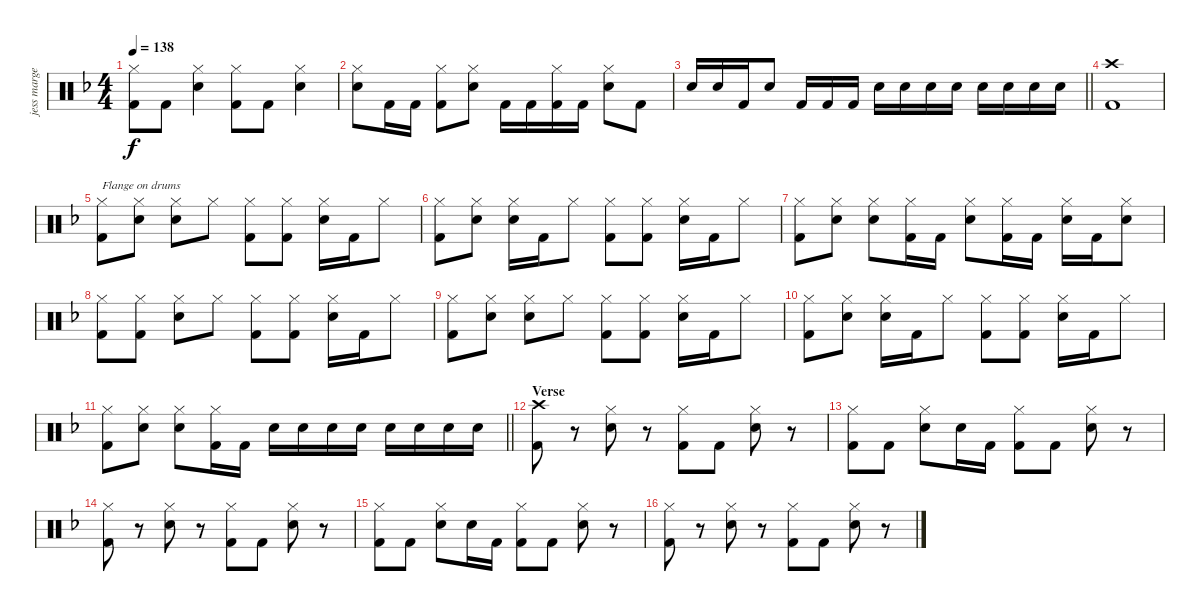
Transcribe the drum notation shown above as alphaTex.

\track ("jess margera" "jess marge") {instrument percussion}
\staff {score}
\articulation defaults
\ts (4 4)
\tempo 138
\clef neutral
\ks f
("Hi-Hat (closed)" "Kick (hit) 2").8{dy f} "Kick (hit) 2".8 ("Hi-Hat (closed)" "Electric Snare (hit)").4 ("Hi-Hat (closed)" "Kick (hit) 2").8 "Kick (hit) 2".8 ("Hi-Hat (closed)" "Electric Snare (hit)").4 |
("Hi-Hat (closed)" "Electric Snare (hit)").8 "Kick (hit) 2".16 "Kick (hit) 2".16 ("Hi-Hat (closed)" "Kick (hit) 2").8 ("Hi-Hat (closed)" "Electric Snare (hit)").8 "Kick (hit) 2".16 "Kick (hit) 2".16 ("Hi-Hat (closed)" "Kick (hit) 2").16 "Kick (hit) 2".16 ("Hi-Hat (closed)" "Electric Snare (hit)").8 "Kick (hit) 2".8 |
\barLineRight lightlight "Electric Snare (hit)".16 "Electric Snare (hit)".16 "Kick (hit) 2".16 "Electric Snare (hit)".8 "Kick (hit) 2".16 "Kick (hit) 2".16 "Kick (hit) 2".16 "Electric Snare (hit)".16 "Electric Snare (hit)".16 "Electric Snare (hit)".16 "Electric Snare (hit)".16 "Electric Snare (hit)".16 "Electric Snare (hit)".16 "Electric Snare (hit)".16 "Electric Snare (hit)".16
|
("Crash high (hit)" "Kick (hit) 2").1 |
("Hi-Hat (closed)" "Kick (hit) 2").8{txt "Flange on drums"} ("Hi-Hat (closed)" "Electric Snare (hit)").8 ("Hi-Hat (closed)" "Electric Snare (hit)").8 "Hi-Hat (closed)".8 ("Hi-Hat (closed)" "Kick (hit) 2").8 ("Hi-Hat (closed)" "Kick (hit) 2").8 ("Hi-Hat (closed)" "Electric Snare (hit)").16 "Kick (hit) 2".16 "Hi-Hat (closed)".8 |
("Hi-Hat (closed)" "Kick (hit) 2").8 ("Hi-Hat (closed)" "Electric Snare (hit)").8 ("Hi-Hat (closed)" "Electric Snare (hit)").16 "Kick (hit) 2".16 "Hi-Hat (closed)".8 ("Hi-Hat (closed)" "Kick (hit) 2").8 ("Hi-Hat (closed)" "Kick (hit) 2").8 ("Hi-Hat (closed)" "Electric Snare (hit)").16 "Kick (hit) 2".16 "Hi-Hat (closed)".8 |
("Hi-Hat (closed)" "Kick (hit) 2").8 ("Hi-Hat (closed)" "Electric Snare (hit)").8 ("Hi-Hat (closed)" "Electric Snare (hit)").8 ("Hi-Hat (closed)" "Kick (hit) 2").16 "Kick (hit) 2".16 ("Hi-Hat (closed)" "Electric Snare (hit)").8 ("Hi-Hat (closed)" "Kick (hit) 2").16 "Kick (hit) 2".16 ("Hi-Hat (closed)" "Electric Snare (hit)").16 "Kick (hit) 2".16 ("Hi-Hat (closed)" "Electric Snare (hit)").8 |
("Hi-Hat (closed)" "Kick (hit) 2").8 ("Hi-Hat (closed)" "Kick (hit) 2").8 ("Hi-Hat (closed)" "Electric Snare (hit)").8 "Hi-Hat (closed)".8 ("Hi-Hat (closed)" "Kick (hit) 2").8 ("Hi-Hat (closed)" "Kick (hit) 2").8 ("Hi-Hat (closed)" "Electric Snare (hit)").16 "Kick (hit) 2".16 "Hi-Hat (closed)".8 |
("Hi-Hat (closed)" "Kick (hit) 2").8 ("Hi-Hat (closed)" "Electric Snare (hit)").8 ("Hi-Hat (closed)" "Electric Snare (hit)").8 "Hi-Hat (closed)".8 ("Hi-Hat (closed)" "Kick (hit) 2").8 ("Hi-Hat (closed)" "Kick (hit) 2").8 ("Hi-Hat (closed)" "Electric Snare (hit)").16 "Kick (hit) 2".16 "Hi-Hat (closed)".8 |
("Hi-Hat (closed)" "Kick (hit) 2").8 ("Hi-Hat (closed)" "Electric Snare (hit)").8 ("Hi-Hat (closed)" "Electric Snare (hit)").16 "Kick (hit) 2".16 "Hi-Hat (closed)".8 ("Hi-Hat (closed)" "Kick (hit) 2").8 ("Hi-Hat (closed)" "Kick (hit) 2").8 ("Hi-Hat (closed)" "Electric Snare (hit)").16 "Kick (hit) 2".16 "Hi-Hat (closed)".8 |
\barLineRight lightlight
("Hi-Hat (closed)" "Kick (hit) 2").8 ("Hi-Hat (closed)" "Electric Snare (hit)").8 ("Hi-Hat (closed)" "Electric Snare (hit)").8 ("Hi-Hat (closed)" "Kick (hit) 2").16 "Kick (hit) 2".16 "Electric Snare (hit)".16 "Electric Snare (hit)".16 "Electric Snare (hit)".16 "Electric Snare (hit)".16 "Electric Snare (hit)".16 "Electric Snare (hit)".16 "Electric Snare (hit)".16 "Electric Snare (hit)".16 |
\section ("" "Verse")
("Crash high (hit)" "Kick (hit) 2").8 r.8 ("Hi-Hat (closed)" "Electric Snare (hit)").8 r.8 ("Hi-Hat (closed)" "Kick (hit) 2").8 "Kick (hit) 2".8 ("Hi-Hat (closed)" "Electric Snare (hit)").8 r.8 |
("Hi-Hat (closed)" "Kick (hit) 2").8 "Kick (hit) 2".8 ("Hi-Hat (closed)" "Electric Snare (hit)").8 "Electric Snare (hit)".16 "Kick (hit) 2".16 ("Hi-Hat (closed)" "Kick (hit) 2").8 "Kick (hit) 2".8 ("Hi-Hat (closed)" "Electric Snare (hit)").8 r.8 |
("Hi-Hat (closed)" "Kick (hit) 2").8 r.8 ("Hi-Hat (closed)" "Electric Snare (hit)").8 r.8 ("Hi-Hat (closed)" "Kick (hit) 2").8 "Kick (hit) 2".8 ("Hi-Hat (closed)" "Electric Snare (hit)").8 r.8 |
("Hi-Hat (closed)" "Kick (hit) 2").8 "Kick (hit) 2".8 ("Hi-Hat (closed)" "Electric Snare (hit)").8 "Electric Snare (hit)".16 "Kick (hit) 2".16 ("Hi-Hat (closed)" "Kick (hit) 2").8 "Kick (hit) 2".8 ("Hi-Hat (closed)" "Electric Snare (hit)").8 r.8 |
("Hi-Hat (closed)" "Kick (hit) 2").8 r.8 ("Hi-Hat (closed)" "Electric Snare (hit)").8 r.8 ("Hi-Hat (closed)" "Kick (hit) 2").8 "Kick (hit) 2".8 ("Hi-Hat (closed)" "Electric Snare (hit)").8 r.8
